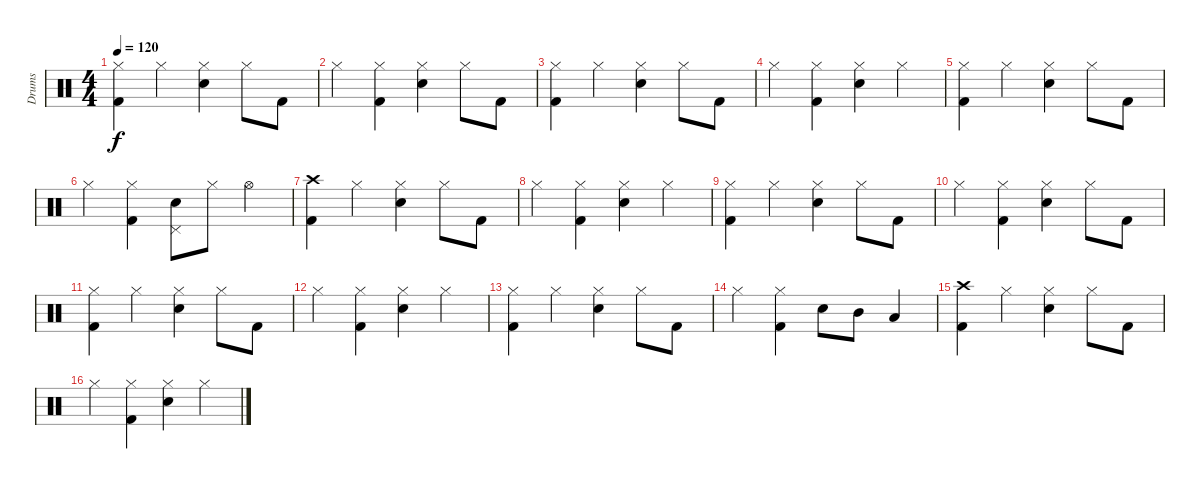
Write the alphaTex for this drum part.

\track ("Drums" "Drums") {instrument percussion}
\staff {score}
\articulation defaults
\ts (4 4)
\tempo 120
\clef neutral
\ks c
("Hi-Hat (closed)" "Kick (hit) 2").4{dy f} "Hi-Hat (closed)".4 ("Hi-Hat (closed)" "Snare (hit) 2").4 "Hi-Hat (closed)".8 "Kick (hit) 2".8 |
"Hi-Hat (closed)".4 ("Hi-Hat (closed)" "Kick (hit) 2").4 ("Hi-Hat (closed)" "Snare (hit) 2").4 "Hi-Hat (closed)".8 "Kick (hit) 2".8 |
("Hi-Hat (closed)" "Kick (hit) 2").4 "Hi-Hat (closed)".4 ("Hi-Hat (closed)" "Snare (hit) 2").4 "Hi-Hat (closed)".8 "Kick (hit) 2".8 |
"Hi-Hat (closed)".4 ("Hi-Hat (closed)" "Kick (hit) 2").4 ("Hi-Hat (closed)" "Snare (hit) 2").4 "Hi-Hat (closed)".4 |
("Hi-Hat (closed)" "Kick (hit) 2").4 "Hi-Hat (closed)".4 ("Hi-Hat (closed)" "Snare (hit) 2").4 "Hi-Hat (closed)".8 "Kick (hit) 2".8 |
"Hi-Hat (closed)".4 ("Hi-Hat (closed)" "Kick (hit) 2").4 ("Pedal Hi-Hat (hit)" "Snare (hit) 2").8 "Hi-Hat (closed)".8 "Hi-Hat (open)".4 |
("Crash high (hit)" "Kick (hit) 2").4 "Hi-Hat (closed)".4 ("Hi-Hat (closed)" "Snare (hit) 2").4 "Hi-Hat (closed)".8 "Kick (hit) 2".8 |
"Hi-Hat (closed)".4 ("Hi-Hat (closed)" "Kick (hit) 2").4 ("Hi-Hat (closed)" "Snare (hit) 2").4 "Hi-Hat (closed)".4 |
("Hi-Hat (closed)" "Kick (hit) 2").4 "Hi-Hat (closed)".4 ("Hi-Hat (closed)" "Snare (hit) 2").4 "Hi-Hat (closed)".8 "Kick (hit) 2".8 |
"Hi-Hat (closed)".4 ("Hi-Hat (closed)" "Kick (hit) 2").4 ("Hi-Hat (closed)" "Snare (hit) 2").4 "Hi-Hat (closed)".8 "Kick (hit) 2".8 |
("Hi-Hat (closed)" "Kick (hit) 2").4 "Hi-Hat (closed)".4 ("Hi-Hat (closed)" "Snare (hit) 2").4 "Hi-Hat (closed)".8 "Kick (hit) 2".8 |
"Hi-Hat (closed)".4 ("Hi-Hat (closed)" "Kick (hit) 2").4 ("Hi-Hat (closed)" "Snare (hit) 2").4 "Hi-Hat (closed)".4 |
("Hi-Hat (closed)" "Kick (hit) 2").4 "Hi-Hat (closed)".4 ("Hi-Hat (closed)" "Snare (hit) 2").4 "Hi-Hat (closed)".8 "Kick (hit) 2".8 |
"Hi-Hat (closed)".4 ("Hi-Hat (closed)" "Kick (hit) 2").4 "Snare (hit) 2".8 "Mid Tom (hit)".8 "Low Tom (hit)".4 |
("Crash high (hit)" "Kick (hit) 2").4 "Hi-Hat (closed)".4 ("Hi-Hat (closed)" "Snare (hit) 2").4 "Hi-Hat (closed)".8 "Kick (hit) 2".8 |
"Hi-Hat (closed)".4 ("Hi-Hat (closed)" "Kick (hit) 2").4 ("Hi-Hat (closed)" "Snare (hit) 2").4 "Hi-Hat (closed)".4
